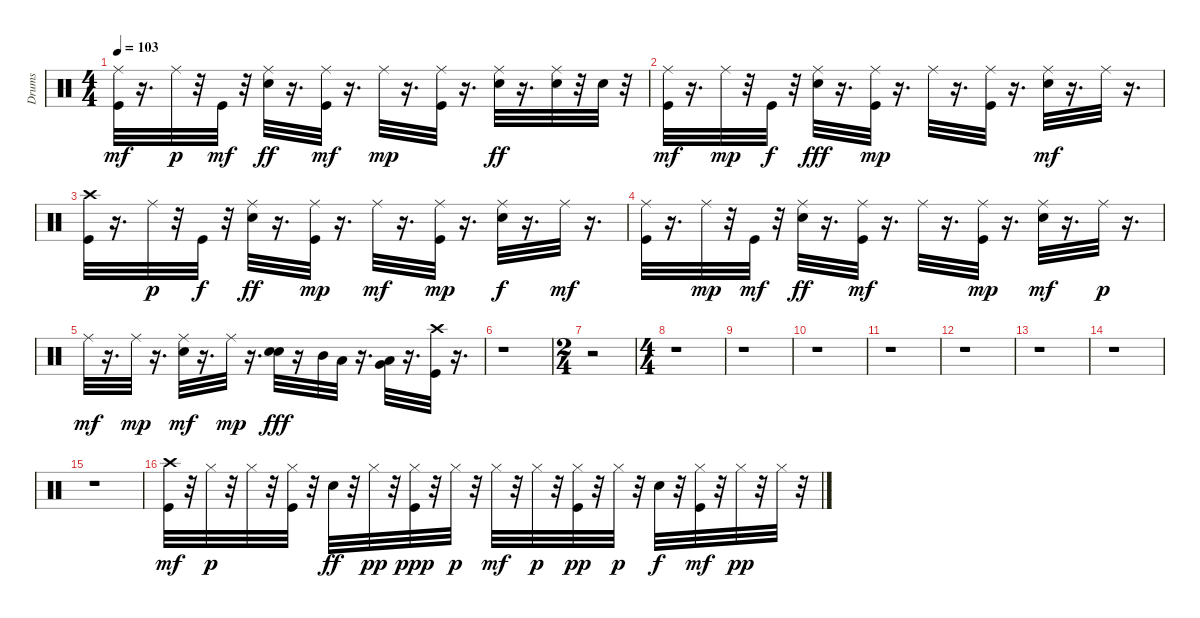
\track ("Drums" "Drums") {instrument percussion}
\staff {score}
\articulation defaults
\ts (4 4)
\tempo 103
\clef neutral
\ks c
("Kick (hit)" "Ride (middle)").32{dy mf} r.16{d} "Ride (middle)".32{dy p} r.32 "Kick (hit)".32{dy mf} r.32 ("Ride (middle)" "Snare (hit) 2").32{dy ff} r.16{d} ("Ride (middle)" "Kick (hit)").32{dy mf} r.16{d} "Ride (middle)".32{dy mp} r.16{d} ("Kick (hit)" "Ride (middle)").32 r.16{d} ("Ride (middle)" "Snare (hit) 2").32{dy ff} r.16{d} ("Ride (middle)" "Snare (hit) 2").32 r.32 "Snare (hit) 2".32 r.32 |
("Ride (middle)" "Kick (hit)").32{dy mf} r.16{d} "Ride (middle)".32{dy mp} r.32 "Kick (hit)".32{dy f} r.32 ("Ride (middle)" "Snare (hit) 2").32{dy fff} r.16{d} ("Ride (middle)" "Kick (hit)").32{dy mp} r.16{d} "Ride (middle)".32 r.16{d} ("Ride (middle)" "Kick (hit)").32 r.16{d} ("Snare (hit) 2" "Ride (middle)").32{dy mf} r.16{d} "Ride (middle)".32 r.16{d} |
("Kick (hit)" "Crash high (hit)").32 r.16{d} "Ride (middle)".32{dy p} r.32 "Kick (hit)".32{dy f} r.32 ("Ride (middle)" "Snare (hit) 2").32{dy ff} r.16{d} ("Kick (hit)" "Ride (middle)").32{dy mp} r.16{d} "Ride (middle)".32{dy mf} r.16{d} ("Kick (hit)" "Ride (middle)").32{dy mp} r.16{d} ("Snare (hit) 2" "Ride (middle)").32{dy f} r.16{d} "Ride (middle)".32{dy mf} r.16{d} |
("Ride (middle)" "Kick (hit)").32 r.16{d} "Ride (middle)".32{dy mp} r.32 "Kick (hit)".32{dy mf} r.32 ("Snare (hit) 2" "Ride (middle)").32{dy ff} r.16{d} ("Kick (hit)" "Ride (middle)").32{dy mf} r.16{d} "Ride (middle)".32 r.16{d} ("Kick (hit)" "Ride (middle)").32{dy mp} r.16{d} ("Snare (hit) 2" "Ride (middle)").32{dy mf} r.16{d} "Ride (middle)".32{dy p} r.16{d} |
"Ride (middle)".32{dy mf} r.16{d} "Ride (middle)".32{dy mp} r.16{d} ("Snare (hit) 2" "Ride (middle)").32{dy mf} r.16{d} "Ride (middle)".32{dy mp} r.16{d} ("Electric Snare (hit)" "Snare (hit) 2").32{dy fff} r.16 "Mid Tom (hit)".32 "Low Tom (hit)".32 r.16{d} ("Very Low Tom (hit)" "Low Floor Tom (hit)").32 r.16{d} ("Kick (hit)" "Crash high (hit)").32 r.16{d} |
r.1 |
\ts (2 4)
r.2 |
\ts (4 4)
r.1 |
r.1 |
r.1 |
r.1 |
r.1 |
r.1 |
r.1 |
r.1 |
("Crash high (hit)" "Kick (hit)").32{dy mf} r.32 "Hi-Hat (closed)".32{dy p} r.32 "Hi-Hat (closed)".32 r.32 ("Kick (hit)" "Hi-Hat (closed)").32 r.32 "Snare (hit) 2".32{dy ff} r.32 "Hi-Hat (closed)".32{dy pp} r.32 ("Hi-Hat (closed)" "Kick (hit)").32{dy ppp} r.32 "Hi-Hat (closed)".32{dy p} r.32 "Hi-Hat (closed)".32{dy mf} r.32 "Hi-Hat (closed)".32{dy p} r.32 ("Kick (hit)" "Hi-Hat (closed)").32{dy pp} r.32 "Hi-Hat (closed)".32{dy p} r.32 "Snare (hit) 2".32{dy f} r.32 ("Hi-Hat (closed)" "Kick (hit)").32{dy mf} r.32 "Hi-Hat (closed)".32{dy pp} r.32 "Hi-Hat (closed)".32 r.32
